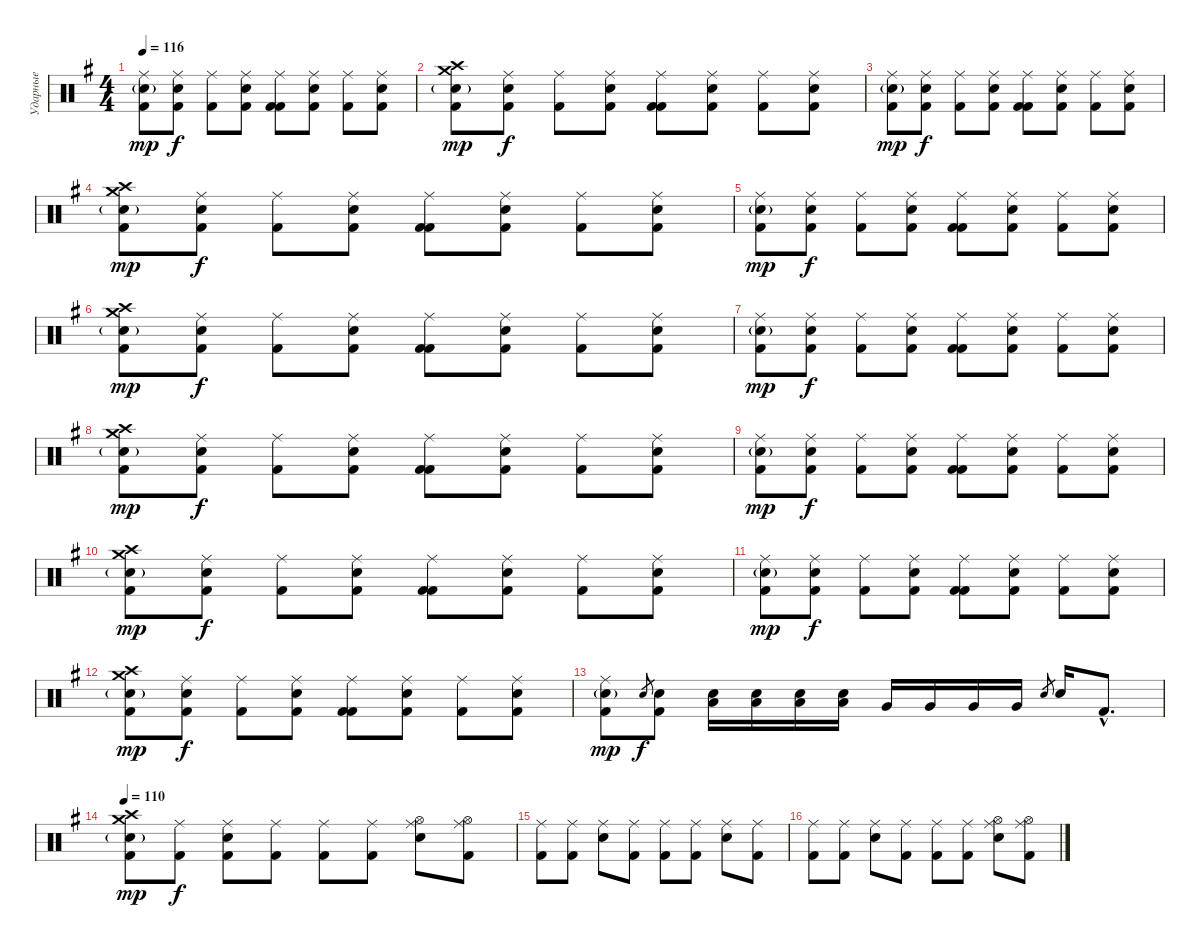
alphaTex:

\track ("Ударные" "Ударные") {instrument percussion}
\staff {score}
\articulation defaults
\ts (4 4)
\tempo 116
\clef neutral
\ks eminor
("Ride (middle)" "Electric Snare (hit)"{g} "Kick (hit) 2").8{dy mp} ("Ride (middle)" "Electric Snare (hit)" "Kick (hit) 2").8{dy f} ("Ride (middle)" "Kick (hit) 2").8 ("Ride (middle)" "Electric Snare (hit)" "Kick (hit) 2").8 ("Ride (middle)" "Kick (hit) 2" "Kick (hit) 2").8 ("Ride (middle)" "Electric Snare (hit)" "Kick (hit) 2").8 ("Ride (middle)" "Kick (hit) 2").8 ("Ride (middle)" "Electric Snare (hit)" "Kick (hit) 2").8 |
("Crash high (hit)" "Crash medium (hit)" "Electric Snare (hit)"{g} "Kick (hit) 2").8{dy mp} ("Ride (middle)" "Electric Snare (hit)" "Kick (hit) 2").8{dy f} ("Ride (middle)" "Kick (hit) 2").8 ("Ride (middle)" "Electric Snare (hit)" "Kick (hit) 2").8 ("Ride (middle)" "Kick (hit) 2" "Kick (hit) 2").8 ("Ride (middle)" "Electric Snare (hit)" "Kick (hit) 2").8 ("Ride (middle)" "Kick (hit) 2").8 ("Ride (middle)" "Electric Snare (hit)" "Kick (hit) 2").8 |
("Ride (middle)" "Electric Snare (hit)"{g} "Kick (hit) 2").8{dy mp} ("Ride (middle)" "Electric Snare (hit)" "Kick (hit) 2").8{dy f} ("Ride (middle)" "Kick (hit) 2").8 ("Ride (middle)" "Electric Snare (hit)" "Kick (hit) 2").8 ("Ride (middle)" "Kick (hit) 2" "Kick (hit) 2").8 ("Ride (middle)" "Electric Snare (hit)" "Kick (hit) 2").8 ("Ride (middle)" "Kick (hit) 2").8 ("Ride (middle)" "Electric Snare (hit)" "Kick (hit) 2").8 |
("Crash high (hit)" "Crash medium (hit)" "Electric Snare (hit)"{g} "Kick (hit) 2").8{dy mp} ("Ride (middle)" "Electric Snare (hit)" "Kick (hit) 2").8{dy f} ("Ride (middle)" "Kick (hit) 2").8 ("Ride (middle)" "Electric Snare (hit)" "Kick (hit) 2").8 ("Ride (middle)" "Kick (hit) 2" "Kick (hit) 2").8 ("Ride (middle)" "Electric Snare (hit)" "Kick (hit) 2").8 ("Ride (middle)" "Kick (hit) 2").8 ("Ride (middle)" "Electric Snare (hit)" "Kick (hit) 2").8 |
("Ride (middle)" "Electric Snare (hit)"{g} "Kick (hit) 2").8{dy mp} ("Ride (middle)" "Electric Snare (hit)" "Kick (hit) 2").8{dy f} ("Ride (middle)" "Kick (hit) 2").8 ("Ride (middle)" "Electric Snare (hit)" "Kick (hit) 2").8 ("Ride (middle)" "Kick (hit) 2" "Kick (hit) 2").8 ("Ride (middle)" "Electric Snare (hit)" "Kick (hit) 2").8 ("Ride (middle)" "Kick (hit) 2").8 ("Ride (middle)" "Electric Snare (hit)" "Kick (hit) 2").8 |
("Crash high (hit)" "Crash medium (hit)" "Electric Snare (hit)"{g} "Kick (hit) 2").8{dy mp} ("Ride (middle)" "Electric Snare (hit)" "Kick (hit) 2").8{dy f} ("Ride (middle)" "Kick (hit) 2").8 ("Ride (middle)" "Electric Snare (hit)" "Kick (hit) 2").8 ("Ride (middle)" "Kick (hit) 2" "Kick (hit) 2").8 ("Ride (middle)" "Electric Snare (hit)" "Kick (hit) 2").8 ("Ride (middle)" "Kick (hit) 2").8 ("Ride (middle)" "Electric Snare (hit)" "Kick (hit) 2").8 |
("Ride (middle)" "Electric Snare (hit)"{g} "Kick (hit) 2").8{dy mp} ("Ride (middle)" "Electric Snare (hit)" "Kick (hit) 2").8{dy f} ("Ride (middle)" "Kick (hit) 2").8 ("Ride (middle)" "Electric Snare (hit)" "Kick (hit) 2").8 ("Ride (middle)" "Kick (hit) 2" "Kick (hit) 2").8 ("Ride (middle)" "Electric Snare (hit)" "Kick (hit) 2").8 ("Ride (middle)" "Kick (hit) 2").8 ("Ride (middle)" "Electric Snare (hit)" "Kick (hit) 2").8 |
("Crash high (hit)" "Crash medium (hit)" "Electric Snare (hit)"{g} "Kick (hit) 2").8{dy mp} ("Ride (middle)" "Electric Snare (hit)" "Kick (hit) 2").8{dy f} ("Ride (middle)" "Kick (hit) 2").8 ("Ride (middle)" "Electric Snare (hit)" "Kick (hit) 2").8 ("Ride (middle)" "Kick (hit) 2" "Kick (hit) 2").8 ("Ride (middle)" "Electric Snare (hit)" "Kick (hit) 2").8 ("Ride (middle)" "Kick (hit) 2").8 ("Ride (middle)" "Electric Snare (hit)" "Kick (hit) 2").8 |
("Ride (middle)" "Electric Snare (hit)"{g} "Kick (hit) 2").8{dy mp} ("Ride (middle)" "Electric Snare (hit)" "Kick (hit) 2").8{dy f} ("Ride (middle)" "Kick (hit) 2").8 ("Ride (middle)" "Electric Snare (hit)" "Kick (hit) 2").8 ("Ride (middle)" "Kick (hit) 2" "Kick (hit) 2").8 ("Ride (middle)" "Electric Snare (hit)" "Kick (hit) 2").8 ("Ride (middle)" "Kick (hit) 2").8 ("Ride (middle)" "Electric Snare (hit)" "Kick (hit) 2").8 |
("Crash high (hit)" "Crash medium (hit)" "Electric Snare (hit)"{g} "Kick (hit) 2").8{dy mp} ("Ride (middle)" "Electric Snare (hit)" "Kick (hit) 2").8{dy f} ("Ride (middle)" "Kick (hit) 2").8 ("Ride (middle)" "Electric Snare (hit)" "Kick (hit) 2").8 ("Ride (middle)" "Kick (hit) 2" "Kick (hit) 2").8 ("Ride (middle)" "Electric Snare (hit)" "Kick (hit) 2").8 ("Ride (middle)" "Kick (hit) 2").8 ("Ride (middle)" "Electric Snare (hit)" "Kick (hit) 2").8 |
("Ride (middle)" "Electric Snare (hit)"{g} "Kick (hit) 2").8{dy mp} ("Ride (middle)" "Electric Snare (hit)" "Kick (hit) 2").8{dy f} ("Ride (middle)" "Kick (hit) 2").8 ("Ride (middle)" "Electric Snare (hit)" "Kick (hit) 2").8 ("Ride (middle)" "Kick (hit) 2" "Kick (hit) 2").8 ("Ride (middle)" "Electric Snare (hit)" "Kick (hit) 2").8 ("Ride (middle)" "Kick (hit) 2").8 ("Ride (middle)" "Electric Snare (hit)" "Kick (hit) 2").8 |
("Crash high (hit)" "Crash medium (hit)" "Electric Snare (hit)"{g} "Kick (hit) 2").8{dy mp} ("Ride (middle)" "Electric Snare (hit)" "Kick (hit) 2").8{dy f} ("Ride (middle)" "Kick (hit) 2").8 ("Ride (middle)" "Electric Snare (hit)" "Kick (hit) 2").8 ("Ride (middle)" "Kick (hit) 2" "Kick (hit) 2").8 ("Ride (middle)" "Electric Snare (hit)" "Kick (hit) 2").8 ("Ride (middle)" "Kick (hit) 2").8 ("Ride (middle)" "Electric Snare (hit)" "Kick (hit) 2").8 |
("Ride (middle)" "Electric Snare (hit)"{g} "Kick (hit) 2").8{dy mp} "Electric Snare (hit)".8{gr dy f} ("Electric Snare (hit)" "Kick (hit) 2").8 ("Snare (hit) 2" "Low Tom (hit)").16 ("Snare (hit) 2" "Low Tom (hit)").16 ("Snare (hit) 2" "Low Tom (hit)").16 ("Snare (hit) 2" "Low Tom (hit)").16 "Very Low Tom (hit)".16 "Very Low Tom (hit)".16 "Very Low Tom (hit)".16 "Very Low Tom (hit)".16 "Electric Snare (hit)".8{gr} "Electric Snare (hit)".16 "Kick (hit) 2"{hac}.8{d} |
\tempo 110
("Crash high (hit)" "Crash medium (hit)" "Electric Snare (hit)"{g} "Kick (hit) 2").8{dy mp} ("Ride (middle)" "Kick (hit) 2").8{dy f} ("Ride (middle)" "Electric Snare (hit)" "Kick (hit) 2").8 ("Ride (middle)" "Kick (hit) 2").8 ("Ride (middle)" "Kick (hit) 2").8 ("Ride (middle)" "Kick (hit) 2").8 ("Ride (middle)" "Hi-Hat (open)" "Electric Snare (hit)").8 ("Ride (middle)" "Hi-Hat (open)" "Kick (hit) 2").8 |
("Ride (middle)" "Kick (hit) 2").8 ("Ride (middle)" "Kick (hit) 2").8 ("Ride (middle)" "Electric Snare (hit)").8 ("Ride (middle)" "Kick (hit) 2").8 ("Ride (middle)" "Kick (hit) 2").8 ("Ride (middle)" "Kick (hit) 2").8 ("Ride (middle)" "Electric Snare (hit)").8 ("Ride (middle)" "Kick (hit) 2").8 |
("Ride (middle)" "Kick (hit) 2").8 ("Ride (middle)" "Kick (hit) 2").8 ("Ride (middle)" "Electric Snare (hit)").8 ("Ride (middle)" "Kick (hit) 2").8 ("Ride (middle)" "Kick (hit) 2").8 ("Ride (middle)" "Kick (hit) 2").8 ("Ride (middle)" "Hi-Hat (open)" "Electric Snare (hit)").8 ("Ride (middle)" "Hi-Hat (open)" "Kick (hit) 2").8
